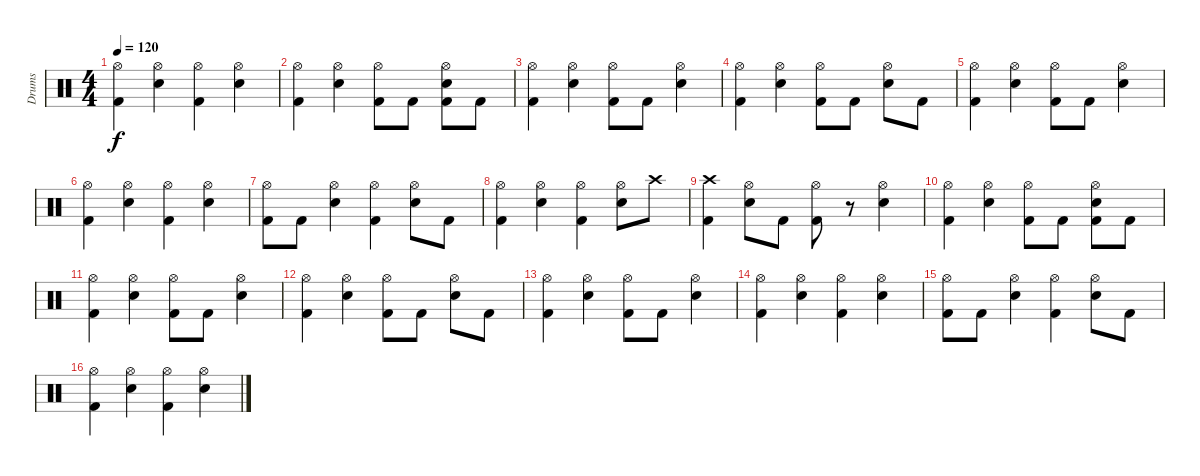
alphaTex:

\track ("Drums" "Drums") {instrument percussion}
\staff {score}
\articulation defaults
\ts (4 4)
\tempo 120
\clef neutral
\ks c
("Hi-Hat (open)" "Kick (hit) 2").4{dy f} ("Hi-Hat (open)" "Electric Snare (hit)").4 ("Hi-Hat (open)" "Kick (hit) 2").4 ("Hi-Hat (open)" "Electric Snare (hit)").4 |
("Hi-Hat (open)" "Kick (hit) 2").4 ("Hi-Hat (open)" "Electric Snare (hit)").4 ("Hi-Hat (open)" "Kick (hit) 2").8 "Kick (hit) 2".8 ("Hi-Hat (open)" "Electric Snare (hit)" "Kick (hit) 2").8 "Kick (hit) 2".8 |
("Hi-Hat (open)" "Kick (hit) 2").4 ("Hi-Hat (open)" "Electric Snare (hit)").4 ("Hi-Hat (open)" "Kick (hit) 2").8 "Kick (hit) 2".8 ("Hi-Hat (open)" "Electric Snare (hit)").4 |
("Hi-Hat (open)" "Kick (hit) 2").4 ("Hi-Hat (open)" "Electric Snare (hit)").4 ("Hi-Hat (open)" "Kick (hit) 2").8 "Kick (hit) 2".8 ("Hi-Hat (open)" "Electric Snare (hit)").8 "Kick (hit) 2".8 |
("Hi-Hat (open)" "Kick (hit) 2").4 ("Hi-Hat (open)" "Electric Snare (hit)").4 ("Hi-Hat (open)" "Kick (hit) 2").8 "Kick (hit) 2".8 ("Hi-Hat (open)" "Electric Snare (hit)").4 |
("Hi-Hat (open)" "Kick (hit) 2").4 ("Hi-Hat (open)" "Electric Snare (hit)").4 ("Hi-Hat (open)" "Kick (hit) 2").4 ("Hi-Hat (open)" "Electric Snare (hit)").4 |
("Hi-Hat (open)" "Kick (hit) 2").8 "Kick (hit) 2".8 ("Hi-Hat (open)" "Electric Snare (hit)").4 ("Hi-Hat (open)" "Kick (hit) 2").4 ("Hi-Hat (open)" "Electric Snare (hit)").8 "Kick (hit) 2".8 |
("Hi-Hat (open)" "Kick (hit) 2").4 ("Hi-Hat (open)" "Electric Snare (hit)").4 ("Hi-Hat (open)" "Kick (hit) 2").4 ("Hi-Hat (open)" "Electric Snare (hit)").8 "Crash high (hit)".8 |
("Crash high (hit)" "Kick (hit) 2").4 ("Hi-Hat (open)" "Electric Snare (hit)").8 "Kick (hit) 2".8 ("Hi-Hat (open)" "Kick (hit) 2").8 r.8 ("Hi-Hat (open)" "Electric Snare (hit)").4 |
("Hi-Hat (open)" "Kick (hit) 2").4 ("Hi-Hat (open)" "Electric Snare (hit)").4 ("Hi-Hat (open)" "Kick (hit) 2").8 "Kick (hit) 2".8 ("Hi-Hat (open)" "Electric Snare (hit)" "Kick (hit) 2").8 "Kick (hit) 2".8 |
("Hi-Hat (open)" "Kick (hit) 2").4 ("Hi-Hat (open)" "Electric Snare (hit)").4 ("Hi-Hat (open)" "Kick (hit) 2").8 "Kick (hit) 2".8 ("Hi-Hat (open)" "Electric Snare (hit)").4 |
("Hi-Hat (open)" "Kick (hit) 2").4 ("Hi-Hat (open)" "Electric Snare (hit)").4 ("Hi-Hat (open)" "Kick (hit) 2").8 "Kick (hit) 2".8 ("Hi-Hat (open)" "Electric Snare (hit)").8 "Kick (hit) 2".8 |
("Hi-Hat (open)" "Kick (hit) 2").4 ("Hi-Hat (open)" "Electric Snare (hit)").4 ("Hi-Hat (open)" "Kick (hit) 2").8 "Kick (hit) 2".8 ("Hi-Hat (open)" "Electric Snare (hit)").4 |
("Hi-Hat (open)" "Kick (hit) 2").4 ("Hi-Hat (open)" "Electric Snare (hit)").4 ("Hi-Hat (open)" "Kick (hit) 2").4 ("Hi-Hat (open)" "Electric Snare (hit)").4 |
("Hi-Hat (open)" "Kick (hit) 2").8 "Kick (hit) 2".8 ("Hi-Hat (open)" "Electric Snare (hit)").4 ("Hi-Hat (open)" "Kick (hit) 2").4 ("Hi-Hat (open)" "Electric Snare (hit)").8 "Kick (hit) 2".8 |
("Hi-Hat (open)" "Kick (hit) 2").4 ("Hi-Hat (open)" "Electric Snare (hit)").4 ("Hi-Hat (open)" "Kick (hit) 2").4 ("Hi-Hat (open)" "Electric Snare (hit)").4
